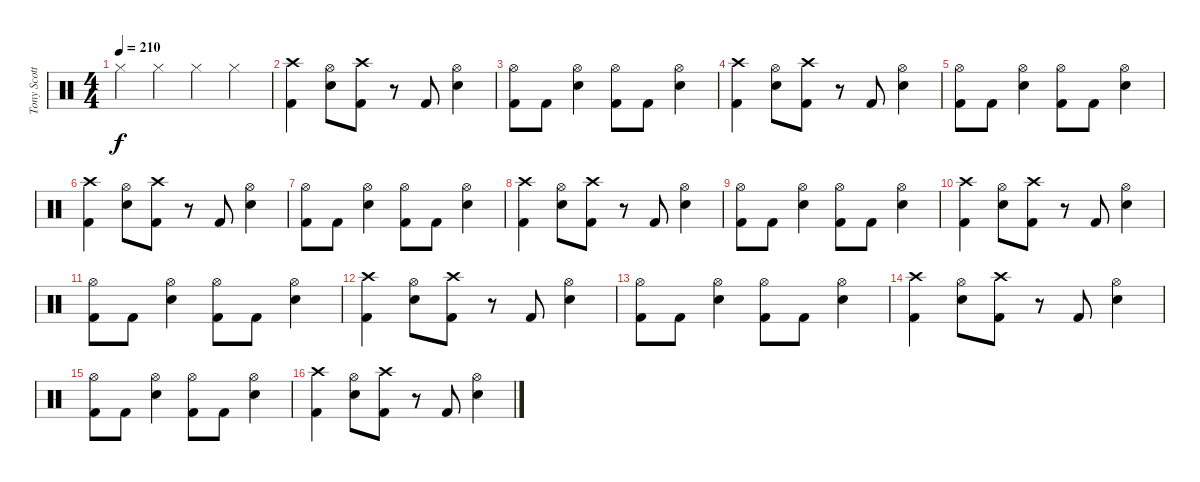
\track ("Tony Scotto" "Tony Scott") {instrument percussion}
\staff {score}
\articulation defaults
\ts (4 4)
\tempo 210
\clef neutral
\ks c "Hi-Hat (closed)".4{dy f} "Hi-Hat (closed)".4 "Hi-Hat (closed)".4 "Hi-Hat (closed)".4
|
("Crash high (hit)" "Kick (hit) 2").4 ("Hi-Hat (open)" "Snare (hit) 2").8 ("Crash high (hit)" "Kick (hit) 2").8 r.8 "Kick (hit) 2".8 ("Hi-Hat (open)" "Snare (hit) 2").4 |
("Hi-Hat (open)" "Kick (hit) 2").8 "Kick (hit) 2".8 ("Hi-Hat (open)" "Snare (hit) 2").4 ("Hi-Hat (open)" "Kick (hit) 2").8 "Kick (hit) 2".8 ("Hi-Hat (open)" "Snare (hit) 2").4 |
("Crash high (hit)" "Kick (hit) 2").4 ("Hi-Hat (open)" "Snare (hit) 2").8 ("Crash high (hit)" "Kick (hit) 2").8 r.8 "Kick (hit) 2".8 ("Hi-Hat (open)" "Snare (hit) 2").4 |
("Hi-Hat (open)" "Kick (hit) 2").8 "Kick (hit) 2".8 ("Hi-Hat (open)" "Snare (hit) 2").4 ("Hi-Hat (open)" "Kick (hit) 2").8 "Kick (hit) 2".8 ("Hi-Hat (open)" "Snare (hit) 2").4 |
("Crash high (hit)" "Kick (hit) 2").4 ("Hi-Hat (open)" "Snare (hit) 2").8 ("Crash high (hit)" "Kick (hit) 2").8 r.8 "Kick (hit) 2".8 ("Hi-Hat (open)" "Snare (hit) 2").4 |
("Hi-Hat (open)" "Kick (hit) 2").8 "Kick (hit) 2".8 ("Hi-Hat (open)" "Snare (hit) 2").4 ("Hi-Hat (open)" "Kick (hit) 2").8 "Kick (hit) 2".8 ("Hi-Hat (open)" "Snare (hit) 2").4 |
("Crash high (hit)" "Kick (hit) 2").4 ("Hi-Hat (open)" "Snare (hit) 2").8 ("Crash high (hit)" "Kick (hit) 2").8 r.8 "Kick (hit) 2".8 ("Hi-Hat (open)" "Snare (hit) 2").4 |
("Hi-Hat (open)" "Kick (hit) 2").8 "Kick (hit) 2".8 ("Hi-Hat (open)" "Snare (hit) 2").4 ("Hi-Hat (open)" "Kick (hit) 2").8 "Kick (hit) 2".8 ("Hi-Hat (open)" "Snare (hit) 2").4 |
("Crash high (hit)" "Kick (hit) 2").4 ("Hi-Hat (open)" "Snare (hit) 2").8 ("Crash high (hit)" "Kick (hit) 2").8 r.8 "Kick (hit) 2".8 ("Hi-Hat (open)" "Snare (hit) 2").4 |
("Hi-Hat (open)" "Kick (hit) 2").8 "Kick (hit) 2".8 ("Hi-Hat (open)" "Snare (hit) 2").4 ("Hi-Hat (open)" "Kick (hit) 2").8 "Kick (hit) 2".8 ("Hi-Hat (open)" "Snare (hit) 2").4 |
("Crash high (hit)" "Kick (hit) 2").4 ("Hi-Hat (open)" "Snare (hit) 2").8 ("Crash high (hit)" "Kick (hit) 2").8 r.8 "Kick (hit) 2".8 ("Hi-Hat (open)" "Snare (hit) 2").4 |
("Hi-Hat (open)" "Kick (hit) 2").8 "Kick (hit) 2".8 ("Hi-Hat (open)" "Snare (hit) 2").4 ("Hi-Hat (open)" "Kick (hit) 2").8 "Kick (hit) 2".8 ("Hi-Hat (open)" "Snare (hit) 2").4 |
("Crash high (hit)" "Kick (hit) 2").4 ("Hi-Hat (open)" "Snare (hit) 2").8 ("Crash high (hit)" "Kick (hit) 2").8 r.8 "Kick (hit) 2".8 ("Hi-Hat (open)" "Snare (hit) 2").4 |
("Hi-Hat (open)" "Kick (hit) 2").8 "Kick (hit) 2".8 ("Hi-Hat (open)" "Snare (hit) 2").4 ("Hi-Hat (open)" "Kick (hit) 2").8 "Kick (hit) 2".8 ("Hi-Hat (open)" "Snare (hit) 2").4 |
("Crash high (hit)" "Kick (hit) 2").4 ("Hi-Hat (open)" "Snare (hit) 2").8 ("Crash high (hit)" "Kick (hit) 2").8 r.8 "Kick (hit) 2".8 ("Hi-Hat (open)" "Snare (hit) 2").4
